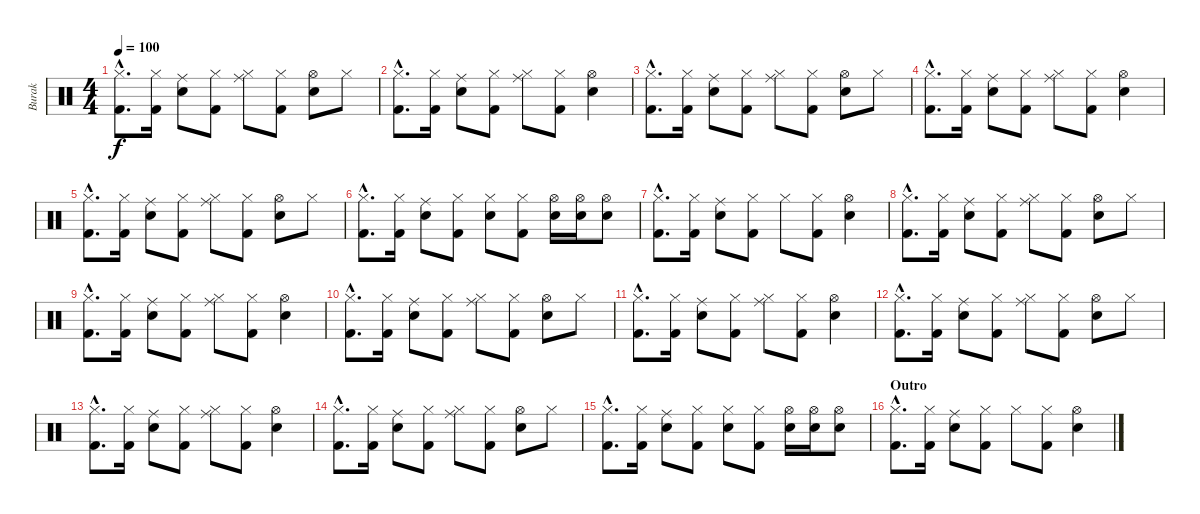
\track ("Burak" "Burak") {instrument percussion}
\staff {score}
\articulation defaults
\ts (4 4)
\tempo 100
\clef neutral
\ks c
("Kick (hit) 2"{hac} "Hi-Hat (closed)"{hac}).8{d dy f} ("Kick (hit) 2" "Hi-Hat (closed)").16 ("Electric Snare (hit)" "Ride (middle)").8 ("Kick (hit) 2" "Hi-Hat (closed)").8 ("Ride (middle)" "Hi-Hat (closed)").8 ("Kick (hit) 2" "Hi-Hat (closed)").8 ("Electric Snare (hit)" "Hi-Hat (open)").8 "Hi-Hat (closed)".8 |
("Kick (hit) 2"{hac} "Hi-Hat (closed)"{hac}).8{d} ("Kick (hit) 2" "Hi-Hat (closed)").16 ("Electric Snare (hit)" "Ride (middle)").8 ("Kick (hit) 2" "Hi-Hat (closed)").8 ("Ride (middle)" "Hi-Hat (closed)").8 ("Kick (hit) 2" "Hi-Hat (closed)").8 ("Electric Snare (hit)" "Hi-Hat (open)").4 |
("Kick (hit) 2"{hac} "Hi-Hat (closed)"{hac}).8{d} ("Kick (hit) 2" "Hi-Hat (closed)").16 ("Electric Snare (hit)" "Ride (middle)").8 ("Kick (hit) 2" "Hi-Hat (closed)").8 ("Ride (middle)" "Hi-Hat (closed)").8 ("Kick (hit) 2" "Hi-Hat (closed)").8 ("Electric Snare (hit)" "Hi-Hat (open)").8 "Hi-Hat (closed)".8 |
("Kick (hit) 2"{hac} "Hi-Hat (closed)"{hac}).8{d} ("Kick (hit) 2" "Hi-Hat (closed)").16 ("Electric Snare (hit)" "Ride (middle)").8 ("Kick (hit) 2" "Hi-Hat (closed)").8 ("Ride (middle)" "Hi-Hat (closed)").8 ("Kick (hit) 2" "Hi-Hat (closed)").8 ("Electric Snare (hit)" "Hi-Hat (open)").4 |
("Kick (hit) 2"{hac} "Hi-Hat (closed)"{hac}).8{d} ("Kick (hit) 2" "Hi-Hat (closed)").16 ("Electric Snare (hit)" "Ride (middle)").8 ("Kick (hit) 2" "Hi-Hat (closed)").8 ("Ride (middle)" "Hi-Hat (closed)").8 ("Kick (hit) 2" "Hi-Hat (closed)").8 ("Electric Snare (hit)" "Hi-Hat (open)").8 "Hi-Hat (closed)".8 |
("Kick (hit) 2"{hac} "Hi-Hat (closed)"{hac}).8{d} ("Kick (hit) 2" "Hi-Hat (closed)").16 ("Electric Snare (hit)" "Ride (middle)").8 ("Kick (hit) 2" "Hi-Hat (closed)").8 ("Electric Snare (hit)" "Hi-Hat (closed)").8 ("Kick (hit) 2" "Hi-Hat (closed)").8 ("Electric Snare (hit)" "Hi-Hat (open)").16 ("Electric Snare (hit)" "Hi-Hat (open)").16 ("Electric Snare (hit)" "Hi-Hat (open)").8 |
("Kick (hit) 2"{hac} "Hi-Hat (closed)"{hac}).8{d} ("Kick (hit) 2" "Hi-Hat (closed)").16 ("Electric Snare (hit)" "Ride (middle)").8 ("Kick (hit) 2" "Hi-Hat (closed)").8 "Hi-Hat (closed)".8 ("Kick (hit) 2" "Hi-Hat (closed)").8 ("Electric Snare (hit)" "Hi-Hat (open)").4 |
("Kick (hit) 2"{hac} "Hi-Hat (closed)"{hac}).8{d} ("Kick (hit) 2" "Hi-Hat (closed)").16 ("Electric Snare (hit)" "Ride (middle)").8 ("Kick (hit) 2" "Hi-Hat (closed)").8 ("Ride (middle)" "Hi-Hat (closed)").8 ("Kick (hit) 2" "Hi-Hat (closed)").8 ("Electric Snare (hit)" "Hi-Hat (open)").8 "Hi-Hat (closed)".8 |
("Kick (hit) 2"{hac} "Hi-Hat (closed)"{hac}).8{d} ("Kick (hit) 2" "Hi-Hat (closed)").16 ("Electric Snare (hit)" "Ride (middle)").8 ("Kick (hit) 2" "Hi-Hat (closed)").8 ("Ride (middle)" "Hi-Hat (closed)").8 ("Kick (hit) 2" "Hi-Hat (closed)").8 ("Electric Snare (hit)" "Hi-Hat (open)").4 |
("Kick (hit) 2"{hac} "Hi-Hat (closed)"{hac}).8{d} ("Kick (hit) 2" "Hi-Hat (closed)").16 ("Electric Snare (hit)" "Ride (middle)").8 ("Kick (hit) 2" "Hi-Hat (closed)").8 ("Ride (middle)" "Hi-Hat (closed)").8 ("Kick (hit) 2" "Hi-Hat (closed)").8 ("Electric Snare (hit)" "Hi-Hat (open)").8 "Hi-Hat (closed)".8 |
("Kick (hit) 2"{hac} "Hi-Hat (closed)"{hac}).8{d} ("Kick (hit) 2" "Hi-Hat (closed)").16 ("Electric Snare (hit)" "Ride (middle)").8 ("Kick (hit) 2" "Hi-Hat (closed)").8 ("Ride (middle)" "Hi-Hat (closed)").8 ("Kick (hit) 2" "Hi-Hat (closed)").8 ("Electric Snare (hit)" "Hi-Hat (open)").4 |
("Kick (hit) 2"{hac} "Hi-Hat (closed)"{hac}).8{d} ("Kick (hit) 2" "Hi-Hat (closed)").16 ("Electric Snare (hit)" "Ride (middle)").8 ("Kick (hit) 2" "Hi-Hat (closed)").8 ("Ride (middle)" "Hi-Hat (closed)").8 ("Kick (hit) 2" "Hi-Hat (closed)").8 ("Electric Snare (hit)" "Hi-Hat (open)").8 "Hi-Hat (closed)".8 |
("Kick (hit) 2"{hac} "Hi-Hat (closed)"{hac}).8{d} ("Kick (hit) 2" "Hi-Hat (closed)").16 ("Electric Snare (hit)" "Ride (middle)").8 ("Kick (hit) 2" "Hi-Hat (closed)").8 ("Ride (middle)" "Hi-Hat (closed)").8 ("Kick (hit) 2" "Hi-Hat (closed)").8 ("Electric Snare (hit)" "Hi-Hat (open)").4 |
("Kick (hit) 2"{hac} "Hi-Hat (closed)"{hac}).8{d} ("Kick (hit) 2" "Hi-Hat (closed)").16 ("Electric Snare (hit)" "Ride (middle)").8 ("Kick (hit) 2" "Hi-Hat (closed)").8 ("Ride (middle)" "Hi-Hat (closed)").8 ("Kick (hit) 2" "Hi-Hat (closed)").8 ("Electric Snare (hit)" "Hi-Hat (open)").8 "Hi-Hat (closed)".8 |
("Kick (hit) 2"{hac} "Hi-Hat (closed)"{hac}).8{d} ("Kick (hit) 2" "Hi-Hat (closed)").16 ("Electric Snare (hit)" "Ride (middle)").8 ("Kick (hit) 2" "Hi-Hat (closed)").8 ("Electric Snare (hit)" "Hi-Hat (closed)").8 ("Kick (hit) 2" "Hi-Hat (closed)").8 ("Electric Snare (hit)" "Hi-Hat (open)").16 ("Electric Snare (hit)" "Hi-Hat (open)").16 ("Electric Snare (hit)" "Hi-Hat (open)").8 |
\section ("" "Outro")
("Kick (hit) 2"{hac} "Hi-Hat (closed)"{hac}).8{d} ("Kick (hit) 2" "Hi-Hat (closed)").16 ("Electric Snare (hit)" "Ride (middle)").8 ("Kick (hit) 2" "Hi-Hat (closed)").8 "Hi-Hat (closed)".8 ("Kick (hit) 2" "Hi-Hat (closed)").8 ("Electric Snare (hit)" "Hi-Hat (open)").4
